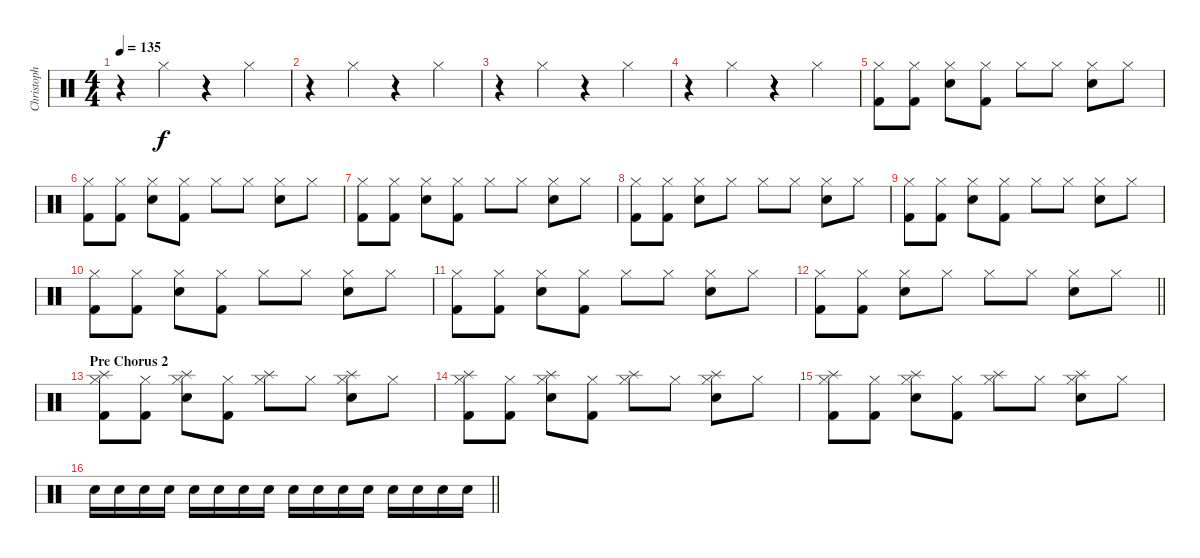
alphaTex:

\track ("Christoph Schneider" "Christoph ") {instrument percussion}
\staff {score}
\articulation defaults
\ts (4 4)
\tempo 135
\clef neutral
\ks c
r.4{dy f} "Hi-Hat (closed)".4 r.4 "Hi-Hat (closed)".4 |
r.4 "Hi-Hat (closed)".4 r.4 "Hi-Hat (closed)".4 |
r.4 "Hi-Hat (closed)".4 r.4 "Hi-Hat (closed)".4 |
r.4 "Hi-Hat (closed)".4 r.4 "Hi-Hat (closed)".4 |
("Hi-Hat (closed)" "Kick (hit) 2").8 ("Hi-Hat (closed)" "Kick (hit) 2").8 ("Hi-Hat (closed)" "Electric Snare (hit)").8 ("Hi-Hat (closed)" "Kick (hit) 2").8 "Hi-Hat (closed)".8 "Hi-Hat (closed)".8 ("Hi-Hat (closed)" "Electric Snare (hit)").8 "Hi-Hat (closed)".8 |
("Hi-Hat (closed)" "Kick (hit) 2").8 ("Hi-Hat (closed)" "Kick (hit) 2").8 ("Hi-Hat (closed)" "Electric Snare (hit)").8 ("Hi-Hat (closed)" "Kick (hit) 2").8 "Hi-Hat (closed)".8 "Hi-Hat (closed)".8 ("Hi-Hat (closed)" "Electric Snare (hit)").8 "Hi-Hat (closed)".8 |
("Hi-Hat (closed)" "Kick (hit) 2").8 ("Hi-Hat (closed)" "Kick (hit) 2").8 ("Hi-Hat (closed)" "Electric Snare (hit)").8 ("Hi-Hat (closed)" "Kick (hit) 2").8 "Hi-Hat (closed)".8 "Hi-Hat (closed)".8 ("Hi-Hat (closed)" "Electric Snare (hit)").8 "Hi-Hat (closed)".8 |
("Hi-Hat (closed)" "Kick (hit) 2").8 ("Hi-Hat (closed)" "Kick (hit) 2").8 ("Hi-Hat (closed)" "Electric Snare (hit)").8 "Hi-Hat (closed)".8 "Hi-Hat (closed)".8 "Hi-Hat (closed)".8 ("Hi-Hat (closed)" "Electric Snare (hit)").8 "Hi-Hat (closed)".8 |
("Hi-Hat (closed)" "Kick (hit) 2").8 ("Hi-Hat (closed)" "Kick (hit) 2").8 ("Hi-Hat (closed)" "Electric Snare (hit)").8 ("Hi-Hat (closed)" "Kick (hit) 2").8 "Hi-Hat (closed)".8 "Hi-Hat (closed)".8 ("Hi-Hat (closed)" "Electric Snare (hit)").8 "Hi-Hat (closed)".8 |
("Hi-Hat (closed)" "Kick (hit) 2").8 ("Hi-Hat (closed)" "Kick (hit) 2").8 ("Hi-Hat (closed)" "Electric Snare (hit)").8 ("Hi-Hat (closed)" "Kick (hit) 2").8 "Hi-Hat (closed)".8 "Hi-Hat (closed)".8 ("Hi-Hat (closed)" "Electric Snare (hit)").8 "Hi-Hat (closed)".8 |
("Hi-Hat (closed)" "Kick (hit) 2").8 ("Hi-Hat (closed)" "Kick (hit) 2").8 ("Hi-Hat (closed)" "Electric Snare (hit)").8 ("Hi-Hat (closed)" "Kick (hit) 2").8 "Hi-Hat (closed)".8 "Hi-Hat (closed)".8 ("Hi-Hat (closed)" "Electric Snare (hit)").8 "Hi-Hat (closed)".8 |
\barLineRight lightlight
("Hi-Hat (closed)" "Kick (hit) 2").8 ("Hi-Hat (closed)" "Kick (hit) 2").8 ("Hi-Hat (closed)" "Electric Snare (hit)").8 "Hi-Hat (closed)".8 "Hi-Hat (closed)".8 "Hi-Hat (closed)".8 ("Hi-Hat (closed)" "Electric Snare (hit)").8 "Hi-Hat (closed)".8 |
\section ("" "Pre Chorus 2")
("Splash (hit)" "Hi-Hat (closed)" "Kick (hit) 2").8 ("Hi-Hat (closed)" "Kick (hit) 2").8 ("Splash (hit)" "Hi-Hat (closed)" "Electric Snare (hit)").8 ("Hi-Hat (closed)" "Kick (hit) 2").8 ("Splash (hit)" "Hi-Hat (closed)").8 "Hi-Hat (closed)".8 ("Splash (hit)" "Hi-Hat (closed)" "Electric Snare (hit)").8 "Hi-Hat (closed)".8 |
("Splash (hit)" "Hi-Hat (closed)" "Kick (hit) 2").8 ("Hi-Hat (closed)" "Kick (hit) 2").8 ("Splash (hit)" "Hi-Hat (closed)" "Electric Snare (hit)").8 ("Hi-Hat (closed)" "Kick (hit) 2").8 ("Splash (hit)" "Hi-Hat (closed)").8 "Hi-Hat (closed)".8 ("Splash (hit)" "Hi-Hat (closed)" "Electric Snare (hit)").8 "Hi-Hat (closed)".8 |
("Splash (hit)" "Hi-Hat (closed)" "Kick (hit) 2").8 ("Hi-Hat (closed)" "Kick (hit) 2").8 ("Splash (hit)" "Hi-Hat (closed)" "Electric Snare (hit)").8 ("Hi-Hat (closed)" "Kick (hit) 2").8 ("Splash (hit)" "Hi-Hat (closed)").8 "Hi-Hat (closed)".8 ("Splash (hit)" "Hi-Hat (closed)" "Electric Snare (hit)").8 "Hi-Hat (closed)".8 |
\barLineRight lightlight "Electric Snare (hit)".16 "Electric Snare (hit)".16 "Electric Snare (hit)".16 "Electric Snare (hit)".16 "Electric Snare (hit)".16 "Electric Snare (hit)".16 "Electric Snare (hit)".16 "Electric Snare (hit)".16 "Electric Snare (hit)".16 "Electric Snare (hit)".16 "Electric Snare (hit)".16 "Electric Snare (hit)".16 "Electric Snare (hit)".16 "Electric Snare (hit)".16 "Electric Snare (hit)".16 "Electric Snare (hit)".16
